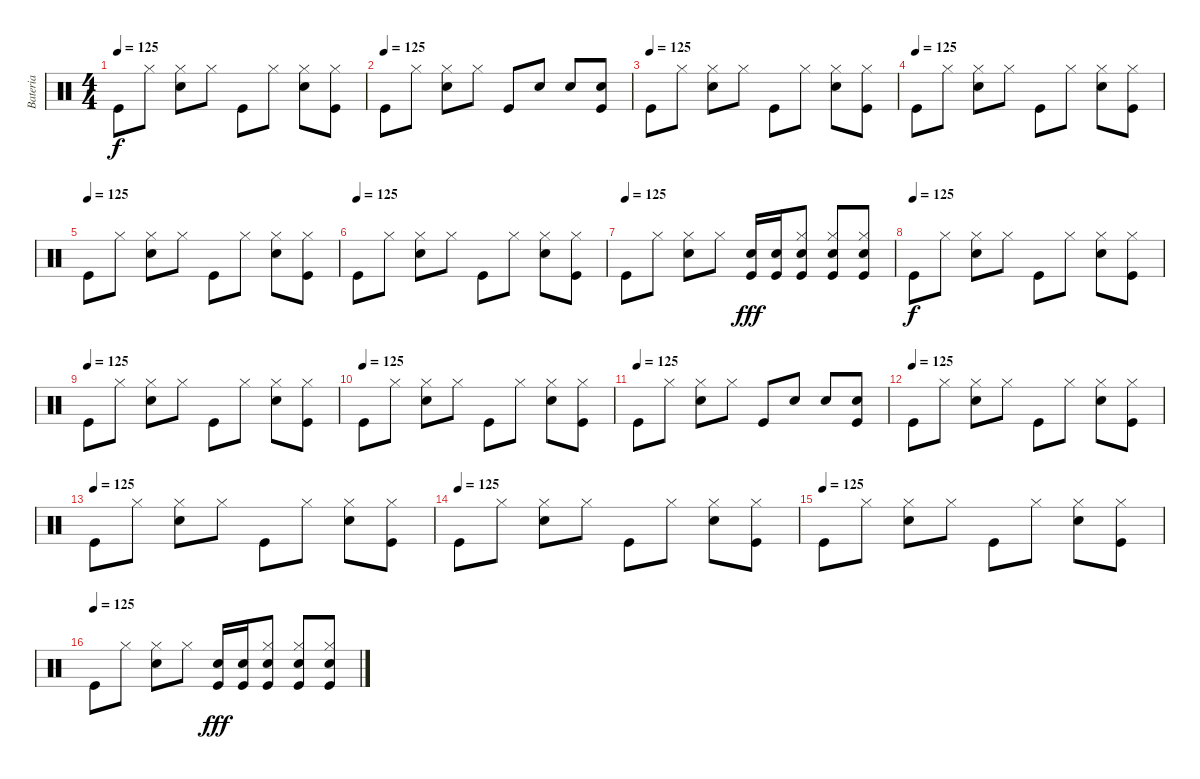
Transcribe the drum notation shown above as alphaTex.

\track ("Bateria" "Bateria") {instrument percussion}
\staff {score}
\articulation defaults
\ts (4 4)
\tempo 125
\clef neutral
\ks c "Kick (hit)".8{dy f} "Hi-Hat (closed)".8
("Snare (hit) 2" "Hi-Hat (closed)").8 "Hi-Hat (closed)".8 "Kick (hit)".8 "Hi-Hat (closed)".8 ("Snare (hit) 2" "Hi-Hat (closed)").8 ("Hi-Hat (closed)" "Kick (hit)").8 |
\tempo (125)
"Kick (hit)".8 "Hi-Hat (closed)".8 ("Snare (hit) 2" "Hi-Hat (closed)").8 "Hi-Hat (closed)".8 "Kick (hit)".8 "Snare (hit) 2".8 "Snare (hit) 2".8 ("Snare (hit) 2" "Kick (hit)").8 |
\tempo (125)
"Kick (hit)".8 "Hi-Hat (closed)".8 ("Snare (hit) 2" "Hi-Hat (closed)").8 "Hi-Hat (closed)".8 "Kick (hit)".8 "Hi-Hat (closed)".8 ("Snare (hit) 2" "Hi-Hat (closed)").8 ("Hi-Hat (closed)" "Kick (hit)").8 |
\tempo (125)
"Kick (hit)".8 "Hi-Hat (closed)".8 ("Snare (hit) 2" "Hi-Hat (closed)").8 "Hi-Hat (closed)".8 "Kick (hit)".8 "Hi-Hat (closed)".8 ("Snare (hit) 2" "Hi-Hat (closed)").8 ("Hi-Hat (closed)" "Kick (hit)").8 |
\tempo (125)
"Kick (hit)".8 "Hi-Hat (closed)".8 ("Snare (hit) 2" "Hi-Hat (closed)").8 "Hi-Hat (closed)".8 "Kick (hit)".8 "Hi-Hat (closed)".8 ("Snare (hit) 2" "Hi-Hat (closed)").8 ("Hi-Hat (closed)" "Kick (hit)").8 |
\tempo (125)
"Kick (hit)".8 "Hi-Hat (closed)".8 ("Snare (hit) 2" "Hi-Hat (closed)").8 "Hi-Hat (closed)".8 "Kick (hit)".8 "Hi-Hat (closed)".8 ("Snare (hit) 2" "Hi-Hat (closed)").8 ("Hi-Hat (closed)" "Kick (hit)").8 |
\tempo (125)
"Kick (hit)".8 "Hi-Hat (closed)".8 ("Snare (hit) 2" "Hi-Hat (closed)").8 "Hi-Hat (closed)".8 ("Snare (hit) 2" "Kick (hit)").16{dy fff} ("Snare (hit) 2" "Kick (hit)").16 ("Snare (hit) 2" "Hi-Hat (closed)" "Kick (hit)").8 ("Snare (hit) 2" "Hi-Hat (closed)" "Kick (hit)").8 ("Snare (hit) 2" "Hi-Hat (closed)" "Kick (hit)").8 |
\tempo (125)
"Kick (hit)".8{dy f} "Hi-Hat (closed)".8 ("Snare (hit) 2" "Hi-Hat (closed)").8 "Hi-Hat (closed)".8 "Kick (hit)".8 "Hi-Hat (closed)".8 ("Snare (hit) 2" "Hi-Hat (closed)").8 ("Hi-Hat (closed)" "Kick (hit)").8 |
\tempo (125)
"Kick (hit)".8 "Hi-Hat (closed)".8 ("Snare (hit) 2" "Hi-Hat (closed)").8 "Hi-Hat (closed)".8 "Kick (hit)".8 "Hi-Hat (closed)".8 ("Snare (hit) 2" "Hi-Hat (closed)").8 ("Hi-Hat (closed)" "Kick (hit)").8 |
\tempo (125)
"Kick (hit)".8 "Hi-Hat (closed)".8 ("Snare (hit) 2" "Hi-Hat (closed)").8 "Hi-Hat (closed)".8 "Kick (hit)".8 "Hi-Hat (closed)".8 ("Snare (hit) 2" "Hi-Hat (closed)").8 ("Hi-Hat (closed)" "Kick (hit)").8 |
\tempo (125)
"Kick (hit)".8 "Hi-Hat (closed)".8 ("Snare (hit) 2" "Hi-Hat (closed)").8 "Hi-Hat (closed)".8 "Kick (hit)".8 "Snare (hit) 2".8 "Snare (hit) 2".8 ("Snare (hit) 2" "Kick (hit)").8 |
\tempo (125)
"Kick (hit)".8 "Hi-Hat (closed)".8 ("Snare (hit) 2" "Hi-Hat (closed)").8 "Hi-Hat (closed)".8 "Kick (hit)".8 "Hi-Hat (closed)".8 ("Snare (hit) 2" "Hi-Hat (closed)").8 ("Hi-Hat (closed)" "Kick (hit)").8 |
\tempo (125)
"Kick (hit)".8 "Hi-Hat (closed)".8 ("Snare (hit) 2" "Hi-Hat (closed)").8 "Hi-Hat (closed)".8 "Kick (hit)".8 "Hi-Hat (closed)".8 ("Snare (hit) 2" "Hi-Hat (closed)").8 ("Hi-Hat (closed)" "Kick (hit)").8 |
\tempo (125)
"Kick (hit)".8 "Hi-Hat (closed)".8 ("Snare (hit) 2" "Hi-Hat (closed)").8 "Hi-Hat (closed)".8 "Kick (hit)".8 "Hi-Hat (closed)".8 ("Snare (hit) 2" "Hi-Hat (closed)").8 ("Hi-Hat (closed)" "Kick (hit)").8 |
\tempo (125)
"Kick (hit)".8 "Hi-Hat (closed)".8 ("Snare (hit) 2" "Hi-Hat (closed)").8 "Hi-Hat (closed)".8 "Kick (hit)".8 "Hi-Hat (closed)".8 ("Snare (hit) 2" "Hi-Hat (closed)").8 ("Hi-Hat (closed)" "Kick (hit)").8 |
\tempo (125)
"Kick (hit)".8 "Hi-Hat (closed)".8 ("Snare (hit) 2" "Hi-Hat (closed)").8 "Hi-Hat (closed)".8 ("Snare (hit) 2" "Kick (hit)").16{dy fff} ("Snare (hit) 2" "Kick (hit)").16 ("Snare (hit) 2" "Hi-Hat (closed)" "Kick (hit)").8 ("Snare (hit) 2" "Hi-Hat (closed)" "Kick (hit)").8 ("Snare (hit) 2" "Hi-Hat (closed)" "Kick (hit)").8
